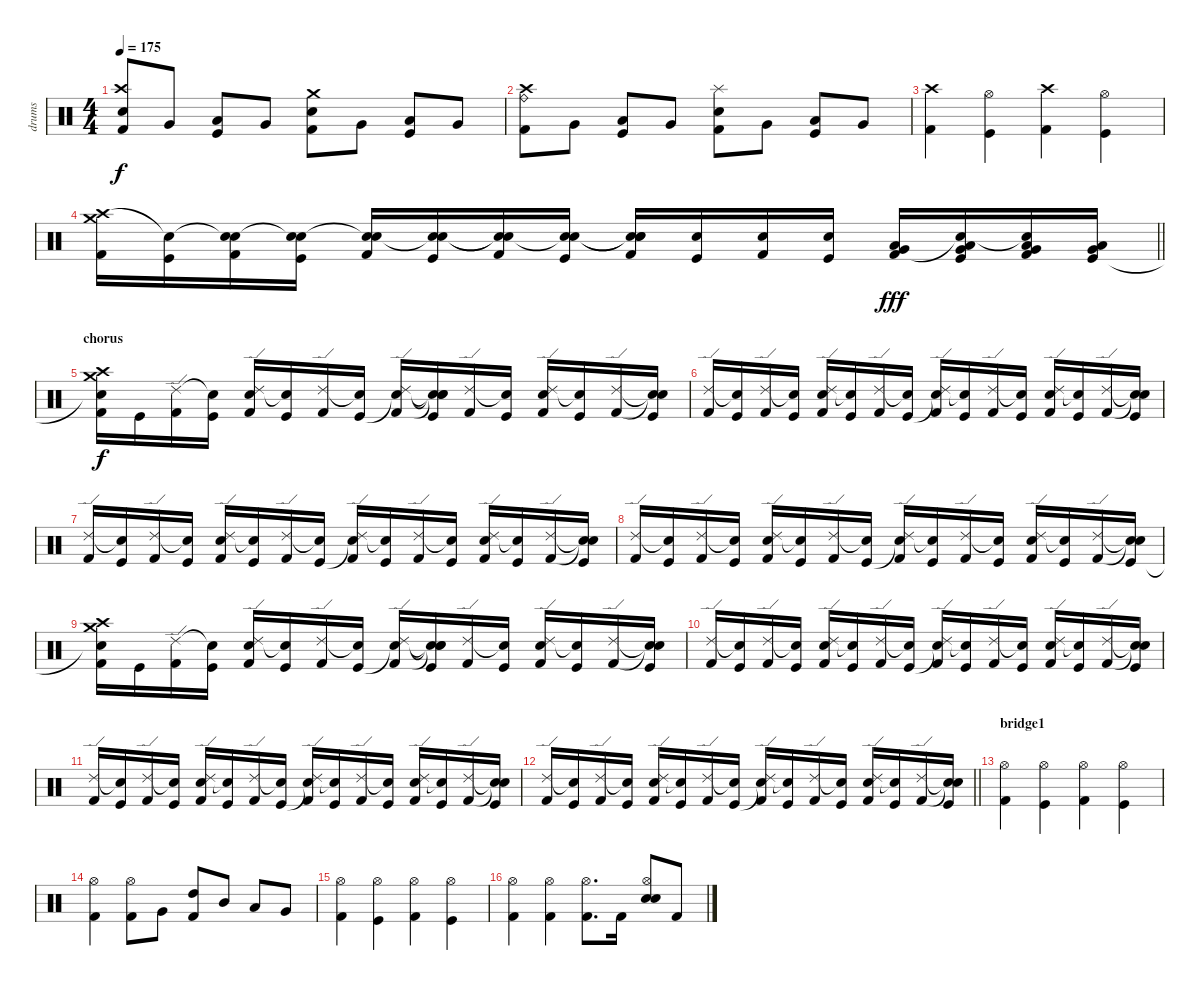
\track ("drums" "drums") {instrument percussion}
\staff {score}
\articulation defaults
\ts (4 4)
\tempo 175
\clef neutral
\ks c
("Kick (hit) 2" "Crash high (hit)" "Snare (hit) 2").8{dy f} "Very Low Tom (hit)".8 ("Kick (hit)" "Low Tom (hit)").8 "Very Low Tom (hit)".8 ("Kick (hit) 2" "Snare (hit) 2" "Crash medium (hit)").8 "Very Low Tom (hit)".8 ("Kick (hit)" "Low Tom (hit)").8 "Very Low Tom (hit)".8 |
("Kick (hit) 2" "Ride (bell)" "Crash high (hit)").8 "Very Low Tom (hit)".8 ("Kick (hit)" "Low Tom (hit)").8 "Very Low Tom (hit)".8 ("Kick (hit) 2" "Snare (hit) 2" "Splash (hit)").8 "Very Low Tom (hit)".8 ("Kick (hit)" "Low Tom (hit)").8 "Very Low Tom (hit)".8 |
("Crash high (hit)" "Kick (hit) 2").4 ("Hi-Hat (open)" "Kick (hit)").4 ("Crash high (hit)" "Kick (hit) 2").4 ("Hi-Hat (open)" "Kick (hit)").4 |
\barLineRight lightlight
("Crash high (hit)" "Crash medium (hit)" "Kick (hit) 2").16 ("Snare (hit)"{t} "Kick (hit)").16 ("Snare (hit)"{t} "Electric Snare (hit)" "Kick (hit) 2").16 ("Snare (hit)"{t} "Electric Snare (hit)" "Kick (hit)").16 ("Snare (hit)"{t} "Electric Snare (hit)" "Kick (hit) 2").16 ("Snare (hit)"{t} "Electric Snare (hit)" "Kick (hit)").16 ("Snare (hit)"{t} "Snare (hit)"{t} "Kick (hit) 2").16 ("Snare (hit)"{t} "Electric Snare (hit)" "Kick (hit)").16 ("Snare (hit)"{t} "Snare (hit)"{t} "Electric Snare (hit)" "Kick (hit) 2").16 ("Electric Snare (hit)" "Kick (hit)").16 ("Electric Snare (hit)" "Kick (hit) 2").16 ("Electric Snare (hit)" "Kick (hit)").16 ("Very Low Tom (hit)" "Low Tom (hit)" "Kick (hit) 2").16{dy fff} ("Very Low Tom (hit)" "Low Tom (hit)" "Snare (hit)"{t} "Kick (hit)").16 ("Low Floor Tom (hit)" "Very Low Tom (hit)" "Snare (hit)"{t} "Kick (hit) 2").16 ("Low Floor Tom (hit)" "Very Low Tom (hit)" "Kick (hit)").16 |
\section ("" "chorus")
("Crash high (hit)" "Crash medium (hit)" "Snare (hit)"{t} "Kick (hit) 2").16{dy f} "Kick (hit)".16 ("Ride (edge) 2" "Kick (hit) 2").16 ("Snare (hit)"{t} "Kick (hit)").16 ("Ride (edge) 2" "Snare (hit) 2" "Kick (hit) 2").16 ("Snare (hit)"{t} "Kick (hit)").16 ("Ride (edge) 2" "Kick (hit) 2").16 ("Snare (hit)"{t} "Kick (hit)").16 ("Ride (edge) 2" "Snare (hit)"{t} "Kick (hit) 2").16 ("Snare (hit)"{t} "Snare (hit)"{t} "Snare (hit)"{t} "Kick (hit)").16 ("Ride (edge) 2" "Kick (hit) 2").16 ("Snare (hit)"{t} "Kick (hit)").16 ("Ride (edge) 2" "Snare (hit) 2" "Kick (hit) 2").16 ("Snare (hit)"{t} "Kick (hit)").16 ("Ride (edge) 2" "Kick (hit) 2").16 ("Snare (hit)"{t} "Snare (hit)"{t} "Kick (hit)").16 |
("Ride (edge) 2" "Kick (hit) 2").16 ("Snare (hit)"{t} "Kick (hit)").16 ("Ride (edge) 2" "Kick (hit) 2").16 ("Snare (hit)"{t} "Kick (hit)").16 ("Ride (edge) 2" "Snare (hit) 2" "Kick (hit) 2").16 ("Snare (hit)"{t} "Kick (hit)").16 ("Ride (edge) 2" "Kick (hit) 2").16 ("Snare (hit)"{t} "Kick (hit)").16 ("Ride (edge) 2" "Snare (hit)"{t} "Kick (hit) 2").16 ("Snare (hit)"{t} "Kick (hit)").16 ("Ride (edge) 2" "Kick (hit) 2").16 ("Snare (hit)"{t} "Kick (hit)").16 ("Ride (edge) 2" "Snare (hit) 2" "Kick (hit) 2").16 ("Snare (hit)"{t} "Kick (hit)").16 ("Ride (edge) 2" "Kick (hit) 2").16 ("Snare (hit)"{t} "Snare (hit)"{t} "Kick (hit)").16 |
("Ride (edge) 2" "Kick (hit) 2").16 ("Snare (hit)"{t} "Kick (hit)").16 ("Ride (edge) 2" "Kick (hit) 2").16 ("Snare (hit)"{t} "Kick (hit)").16 ("Ride (edge) 2" "Snare (hit) 2" "Kick (hit) 2").16 ("Snare (hit)"{t} "Kick (hit)").16 ("Ride (edge) 2" "Kick (hit) 2").16 ("Snare (hit)"{t} "Kick (hit)").16 ("Ride (edge) 2" "Snare (hit)"{t} "Kick (hit) 2").16 ("Snare (hit)"{t} "Kick (hit)").16 ("Ride (edge) 2" "Kick (hit) 2").16 ("Snare (hit)"{t} "Kick (hit)").16 ("Ride (edge) 2" "Snare (hit) 2" "Kick (hit) 2").16 ("Snare (hit)"{t} "Kick (hit)").16 ("Ride (edge) 2" "Kick (hit) 2").16 ("Snare (hit)"{t} "Snare (hit)"{t} "Kick (hit)").16 |
("Ride (edge) 2" "Kick (hit) 2").16 ("Snare (hit)"{t} "Kick (hit)").16 ("Ride (edge) 2" "Kick (hit) 2").16 ("Snare (hit)"{t} "Kick (hit)").16 ("Ride (edge) 2" "Snare (hit) 2" "Kick (hit) 2").16 ("Snare (hit)"{t} "Kick (hit)").16 ("Ride (edge) 2" "Kick (hit) 2").16 ("Snare (hit)"{t} "Kick (hit)").16 ("Ride (edge) 2" "Snare (hit)"{t} "Kick (hit) 2").16 ("Snare (hit)"{t} "Kick (hit)").16 ("Ride (edge) 2" "Kick (hit) 2").16 ("Snare (hit)"{t} "Kick (hit)").16 ("Ride (edge) 2" "Snare (hit) 2" "Kick (hit) 2").16 ("Snare (hit)"{t} "Kick (hit)").16 ("Ride (edge) 2" "Kick (hit) 2").16 ("Snare (hit)"{t} "Snare (hit)"{t} "Kick (hit)").16 |
("Crash high (hit)" "Crash medium (hit)" "Snare (hit)"{t} "Kick (hit) 2").16 "Kick (hit)".16 ("Ride (edge) 2" "Kick (hit) 2").16 ("Snare (hit)"{t} "Kick (hit)").16 ("Ride (edge) 2" "Snare (hit) 2" "Kick (hit) 2").16 ("Snare (hit)"{t} "Kick (hit)").16 ("Ride (edge) 2" "Kick (hit) 2").16 ("Snare (hit)"{t} "Kick (hit)").16 ("Ride (edge) 2" "Snare (hit)"{t} "Kick (hit) 2").16 ("Snare (hit)"{t} "Snare (hit)"{t} "Snare (hit)"{t} "Kick (hit)").16 ("Ride (edge) 2" "Kick (hit) 2").16 ("Snare (hit)"{t} "Kick (hit)").16 ("Ride (edge) 2" "Snare (hit) 2" "Kick (hit) 2").16 ("Snare (hit)"{t} "Kick (hit)").16 ("Ride (edge) 2" "Kick (hit) 2").16 ("Snare (hit)"{t} "Snare (hit)"{t} "Kick (hit)").16 |
("Ride (edge) 2" "Kick (hit) 2").16 ("Snare (hit)"{t} "Kick (hit)").16 ("Ride (edge) 2" "Kick (hit) 2").16 ("Snare (hit)"{t} "Kick (hit)").16 ("Ride (edge) 2" "Snare (hit) 2" "Kick (hit) 2").16 ("Snare (hit)"{t} "Kick (hit)").16 ("Ride (edge) 2" "Kick (hit) 2").16 ("Snare (hit)"{t} "Kick (hit)").16 ("Ride (edge) 2" "Snare (hit)"{t} "Kick (hit) 2").16 ("Snare (hit)"{t} "Kick (hit)").16 ("Ride (edge) 2" "Kick (hit) 2").16 ("Snare (hit)"{t} "Kick (hit)").16 ("Ride (edge) 2" "Snare (hit) 2" "Kick (hit) 2").16 ("Snare (hit)"{t} "Kick (hit)").16 ("Ride (edge) 2" "Kick (hit) 2").16 ("Snare (hit)"{t} "Snare (hit)"{t} "Kick (hit)").16 |
("Ride (edge) 2" "Kick (hit) 2").16 ("Snare (hit)"{t} "Kick (hit)").16 ("Ride (edge) 2" "Kick (hit) 2").16 ("Snare (hit)"{t} "Kick (hit)").16 ("Ride (edge) 2" "Snare (hit) 2" "Kick (hit) 2").16 ("Snare (hit)"{t} "Kick (hit)").16 ("Ride (edge) 2" "Kick (hit) 2").16 ("Snare (hit)"{t} "Kick (hit)").16 ("Ride (edge) 2" "Snare (hit)"{t} "Kick (hit) 2").16 ("Snare (hit)"{t} "Kick (hit)").16 ("Ride (edge) 2" "Kick (hit) 2").16 ("Snare (hit)"{t} "Kick (hit)").16 ("Ride (edge) 2" "Snare (hit) 2" "Kick (hit) 2").16 ("Snare (hit)"{t} "Kick (hit)").16 ("Ride (edge) 2" "Kick (hit) 2").16 ("Snare (hit)"{t} "Snare (hit)"{t} "Kick (hit)").16 |
\barLineRight lightlight
("Ride (edge) 2" "Kick (hit) 2").16 ("Snare (hit)"{t} "Kick (hit)").16 ("Ride (edge) 2" "Kick (hit) 2").16 ("Snare (hit)"{t} "Kick (hit)").16 ("Ride (edge) 2" "Snare (hit) 2" "Kick (hit) 2").16 ("Snare (hit)"{t} "Kick (hit)").16 ("Ride (edge) 2" "Kick (hit) 2").16 ("Snare (hit)"{t} "Kick (hit)").16 ("Ride (edge) 2" "Snare (hit)"{t} "Kick (hit) 2").16 ("Snare (hit)"{t} "Kick (hit)").16 ("Ride (edge) 2" "Kick (hit) 2").16 ("Snare (hit)"{t} "Kick (hit)").16 ("Ride (edge) 2" "Snare (hit) 2" "Kick (hit) 2").16 ("Snare (hit)"{t} "Kick (hit)").16 ("Ride (edge) 2" "Kick (hit) 2").16 ("Snare (hit)"{t} "Snare (hit)"{t} "Kick (hit)").16 |
\section ("" "bridge1")
("Kick (hit) 2" "Hi-Hat (open)").4 ("Kick (hit)" "Hi-Hat (open)").4 ("Kick (hit) 2" "Hi-Hat (open)").4 ("Kick (hit)" "Hi-Hat (open)").4 |
("Kick (hit) 2" "Hi-Hat (open)").4 ("Kick (hit) 2" "Hi-Hat (open)").8 "Very Low Tom (hit)".8 ("Kick (hit) 2" "High Tom (hit)").8 "Mid Tom (hit)".8 "Low Tom (hit)".8 "Very Low Tom (hit)".8 |
("Kick (hit) 2" "Hi-Hat (open)").4 ("Kick (hit)" "Hi-Hat (open)").4 ("Kick (hit) 2" "Hi-Hat (open)").4 ("Kick (hit)" "Hi-Hat (open)").4 |
("Hi-Hat (open)" "Kick (hit) 2").4 ("Hi-Hat (open)" "Kick (hit) 2").4 ("Hi-Hat (open)" "Kick (hit) 2").8{d} "Kick (hit) 2".16 ("Electric Snare (hit)" "Snare (hit) 2" "Hi-Hat (open)").8 "Kick (hit) 2".8
